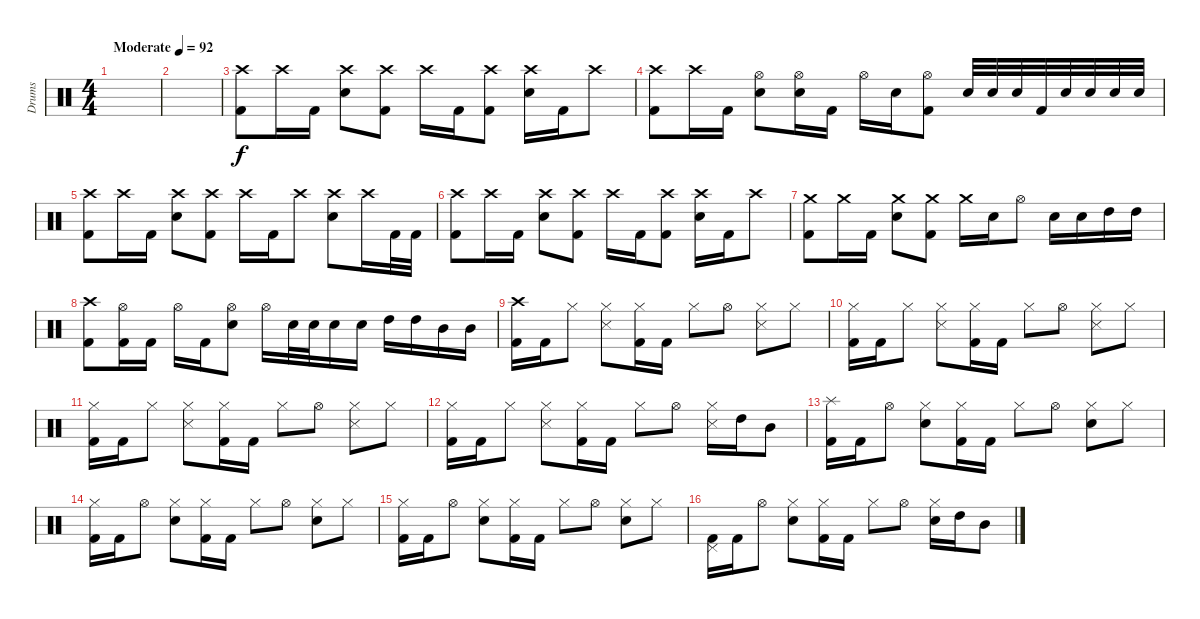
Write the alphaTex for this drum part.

\track ("Drums" "Drums") {instrument percussion}
\staff {score}
\articulation defaults
\ts (4 4)
\tempo (92 "Moderate")
\clef neutral
\ks c
|
|
("Crash high (hit)" "Kick (hit) 2").8 "Crash high (hit)".16 "Kick (hit) 2".16 ("Crash high (hit)" "Snare (hit) 2").8 ("Crash high (hit)" "Kick (hit) 2").8 "Crash high (hit)".16 "Kick (hit) 2".16 ("Crash high (hit)" "Kick (hit) 2").8 ("Crash high (hit)" "Snare (hit) 2").16 "Kick (hit) 2".16 "Crash high (hit)".8 |
("Crash high (hit)" "Kick (hit) 2").8 "Crash high (hit)".16 "Kick (hit) 2".16 ("Hi-Hat (open)" "Snare (hit) 2").8 ("Hi-Hat (open)" "Snare (hit) 2").16 "Kick (hit) 2".16 "Hi-Hat (open)".16 "Snare (hit) 2".16 ("Hi-Hat (open)" "Kick (hit) 2").8 "Snare (hit) 2".32 "Snare (hit) 2".32 "Snare (hit) 2".32 "Kick (hit) 2".32 "Snare (hit) 2".32 "Snare (hit) 2".32 "Snare (hit) 2".32 "Snare (hit) 2".32 |
("Crash high (hit)" "Kick (hit) 2").8 "Crash high (hit)".16 "Kick (hit) 2".16 ("Crash high (hit)" "Snare (hit) 2").8 ("Crash high (hit)" "Kick (hit) 2").8 "Crash high (hit)".16 "Kick (hit) 2".16 "Crash high (hit)".8 ("Crash high (hit)" "Snare (hit) 2").8 "Crash high (hit)".16 "Kick (hit) 2".32 "Kick (hit) 2".32 |
("Crash high (hit)" "Kick (hit) 2").8 "Crash high (hit)".16 "Kick (hit) 2".16 ("Crash high (hit)" "Snare (hit) 2").8 ("Crash high (hit)" "Kick (hit) 2").8 "Crash high (hit)".16 "Kick (hit) 2".16 ("Crash high (hit)" "Kick (hit) 2").8 ("Crash high (hit)" "Snare (hit) 2").16 "Kick (hit) 2".16 "Crash high (hit)".8 |
("Crash medium (hit)" "Kick (hit) 2").8 "Crash medium (hit)".16 "Kick (hit) 2".16 ("Crash medium (hit)" "Snare (hit) 2").8 ("Crash medium (hit)" "Kick (hit) 2").8 "Crash medium (hit)".16 "Snare (hit) 2".16 "Hi-Hat (open)".8 "Snare (hit) 2".16 "Snare (hit) 2".16 "High Tom (hit)".16 "High Tom (hit)".16 |
("Crash high (hit)" "Kick (hit) 2").8 ("Hi-Hat (open)" "Kick (hit) 2").16 "Kick (hit) 2".16 "Hi-Hat (open)".16 "Kick (hit) 2".16 ("Hi-Hat (open)" "Snare (hit) 2").8 "Hi-Hat (open)".16 "Snare (hit) 2".32 "Snare (hit) 2".32 "Snare (hit) 2".16 "Snare (hit) 2".16 "High Tom (hit)".16 "High Tom (hit)".16 "Mid Tom (hit)".16 "Mid Tom (hit)".16 |
("Crash high (hit)" "Kick (hit) 2").16 "Kick (hit) 2".16 "Hi-Hat (closed)".8 ("Hi-Hat (closed)" "Snare (side stick) 3").8 ("Hi-Hat (closed)" "Kick (hit) 2").16 "Kick (hit) 2".16 "Hi-Hat (closed)".8 "Hi-Hat (open)".8 ("Hi-Hat (closed)" "Snare (side stick) 3").8 "Hi-Hat (closed)".8 |
("Hi-Hat (closed)" "Kick (hit) 2").16 "Kick (hit) 2".16 "Hi-Hat (closed)".8 ("Hi-Hat (closed)" "Snare (side stick) 3").8 ("Hi-Hat (closed)" "Kick (hit) 2").16 "Kick (hit) 2".16 "Hi-Hat (closed)".8 "Hi-Hat (open)".8 ("Hi-Hat (closed)" "Snare (side stick) 3").8 "Hi-Hat (closed)".8 |
("Hi-Hat (closed)" "Kick (hit) 2").16 "Kick (hit) 2".16 "Hi-Hat (closed)".8 ("Hi-Hat (closed)" "Snare (side stick) 3").8 ("Hi-Hat (closed)" "Kick (hit) 2").16 "Kick (hit) 2".16 "Hi-Hat (closed)".8 "Hi-Hat (open)".8 ("Hi-Hat (closed)" "Snare (side stick) 3").8 "Hi-Hat (closed)".8 |
("Hi-Hat (closed)" "Kick (hit) 2").16 "Kick (hit) 2".16 "Hi-Hat (closed)".8 ("Hi-Hat (closed)" "Snare (side stick) 3").8 ("Hi-Hat (closed)" "Kick (hit) 2").16 "Kick (hit) 2".16 "Hi-Hat (closed)".8 "Hi-Hat (open)".8 ("Hi-Hat (closed)" "Snare (side stick) 3").16 "High Tom (hit)".16 "Mid Tom (hit)".8 |
("Splash (hit)" "Kick (hit) 2").16 "Kick (hit) 2".16 "Hi-Hat (open)".8 ("Hi-Hat (closed)" "Electric Snare (hit)").8 ("Hi-Hat (closed)" "Kick (hit) 2").16 "Kick (hit) 2".16 "Hi-Hat (closed)".8 "Hi-Hat (open)".8 ("Hi-Hat (closed)" "Electric Snare (hit)").8 "Hi-Hat (closed)".8 |
("Hi-Hat (closed)" "Kick (hit) 2").16 "Kick (hit) 2".16 "Hi-Hat (open)".8 ("Hi-Hat (closed)" "Electric Snare (hit)").8 ("Hi-Hat (closed)" "Kick (hit) 2").16 "Kick (hit) 2".16 "Hi-Hat (closed)".8 "Hi-Hat (open)".8 ("Hi-Hat (closed)" "Electric Snare (hit)").8 "Hi-Hat (closed)".8 |
("Hi-Hat (closed)" "Kick (hit) 2").16 "Kick (hit) 2".16 "Hi-Hat (open)".8 ("Hi-Hat (closed)" "Electric Snare (hit)").8 ("Hi-Hat (closed)" "Kick (hit) 2").16 "Kick (hit) 2".16 "Hi-Hat (closed)".8 "Hi-Hat (open)".8 ("Hi-Hat (closed)" "Electric Snare (hit)").8 "Hi-Hat (closed)".8 |
("Pedal Hi-Hat (hit)" "Kick (hit) 2").16 "Kick (hit) 2".16 "Hi-Hat (open)".8 ("Hi-Hat (closed)" "Electric Snare (hit)").8 ("Hi-Hat (closed)" "Kick (hit) 2").16 "Kick (hit) 2".16 "Hi-Hat (closed)".8 "Hi-Hat (open)".8 ("Hi-Hat (closed)" "Electric Snare (hit)").16 "High Tom (hit)".16 "Mid Tom (hit)".8
